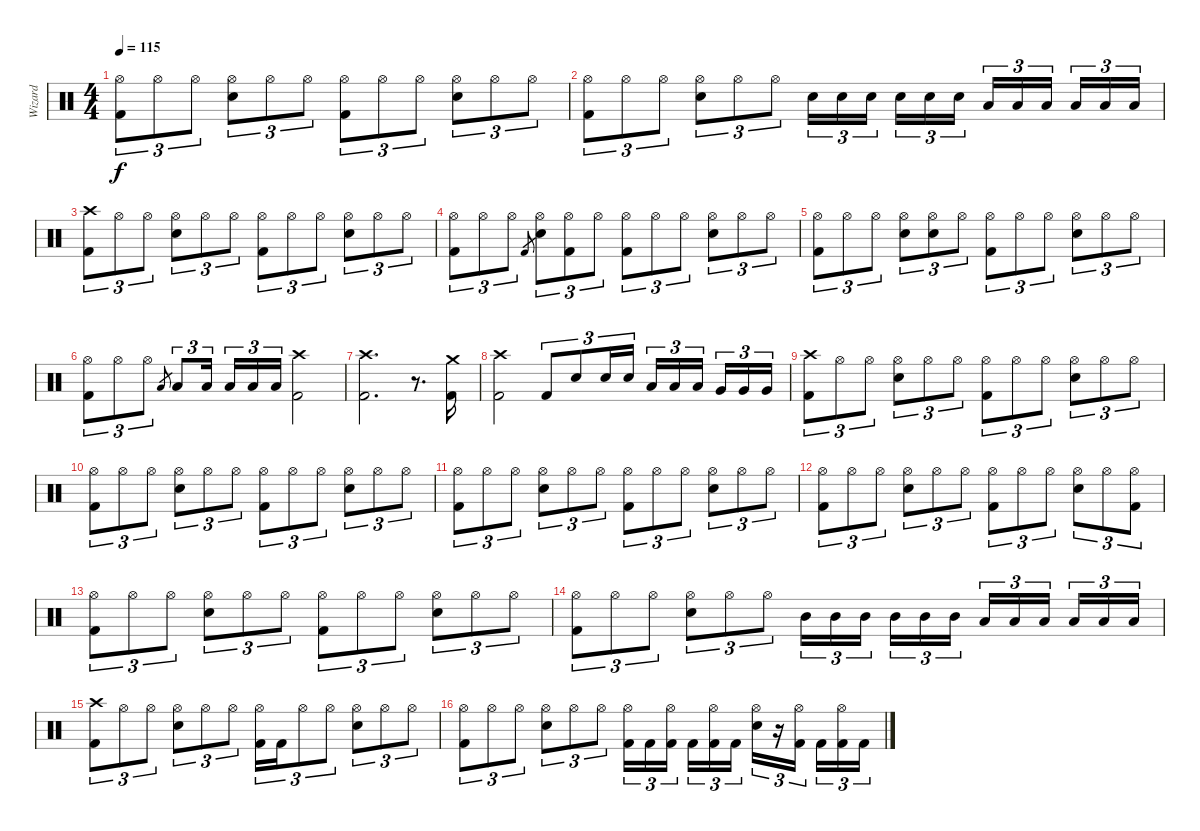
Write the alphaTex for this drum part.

\track ("Wizard" "Wizard") {instrument percussion}
\staff {score}
\articulation defaults
\ts (4 4)
\tempo 115
\clef neutral
\ks c
("Hi-Hat (open)" "Kick (hit) 2").8{tu (3 2) dy f} "Hi-Hat (open)".8{tu (3 2)} "Hi-Hat (open)".8{tu (3 2)} ("Hi-Hat (open)" "Snare (hit) 2").8{tu (3 2)} "Hi-Hat (open)".8{tu (3 2)} "Hi-Hat (open)".8{tu (3 2)} ("Hi-Hat (open)" "Kick (hit) 2").8{tu (3 2)} "Hi-Hat (open)".8{tu (3 2)} "Hi-Hat (open)".8{tu (3 2)} ("Hi-Hat (open)" "Snare (hit) 2").8{tu (3 2)} "Hi-Hat (open)".8{tu (3 2)} "Hi-Hat (open)".8{tu (3 2)} |
("Hi-Hat (open)" "Kick (hit) 2").8{tu (3 2)} "Hi-Hat (open)".8{tu (3 2)} "Hi-Hat (open)".8{tu (3 2)} ("Hi-Hat (open)" "Snare (hit) 2").8{tu (3 2)} "Hi-Hat (open)".8{tu (3 2)} "Hi-Hat (open)".8{tu (3 2)} "Snare (hit) 2".16{tu (3 2)} "Snare (hit) 2".16{tu (3 2)} "Snare (hit) 2".16{tu (3 2) beam splitsecondary} "Snare (hit) 2".16{tu (3 2)} "Snare (hit) 2".16{tu (3 2)} "Snare (hit) 2".16{tu (3 2)} "Low Tom (hit)".16{tu (3 2)} "Low Tom (hit)".16{tu (3 2)} "Low Tom (hit)".16{tu (3 2) beam splitsecondary} "Low Tom (hit)".16{tu (3 2)} "Low Tom (hit)".16{tu (3 2)} "Low Tom (hit)".16{tu (3 2)} |
("Crash high (hit)" "Kick (hit) 2").8{tu (3 2)} "Hi-Hat (open)".8{tu (3 2)} "Hi-Hat (open)".8{tu (3 2)} ("Hi-Hat (open)" "Snare (hit) 2").8{tu (3 2)} "Hi-Hat (open)".8{tu (3 2)} "Hi-Hat (open)".8{tu (3 2)} ("Hi-Hat (open)" "Kick (hit) 2").8{tu (3 2)} "Hi-Hat (open)".8{tu (3 2)} "Hi-Hat (open)".8{tu (3 2)} ("Hi-Hat (open)" "Snare (hit) 2").8{tu (3 2)} "Hi-Hat (open)".8{tu (3 2)} "Hi-Hat (open)".8{tu (3 2)} |
("Hi-Hat (open)" "Kick (hit) 2").8{tu (3 2)} "Hi-Hat (open)".8{tu (3 2)} "Hi-Hat (open)".8{tu (3 2)} "Kick (hit) 2".8{gr} ("Hi-Hat (open)" "Snare (hit) 2").8{tu (3 2)} ("Hi-Hat (open)" "Kick (hit) 2").8{tu (3 2)} "Hi-Hat (open)".8{tu (3 2)} ("Hi-Hat (open)" "Kick (hit) 2").8{tu (3 2)} "Hi-Hat (open)".8{tu (3 2)} "Hi-Hat (open)".8{tu (3 2)} ("Hi-Hat (open)" "Snare (hit) 2").8{tu (3 2)} "Hi-Hat (open)".8{tu (3 2)} "Hi-Hat (open)".8{tu (3 2)} |
("Hi-Hat (open)" "Kick (hit) 2").8{tu (3 2)} "Hi-Hat (open)".8{tu (3 2)} "Hi-Hat (open)".8{tu (3 2)} ("Hi-Hat (open)" "Snare (hit) 2").8{tu (3 2)} ("Hi-Hat (open)" "Snare (hit) 2").8{tu (3 2)} "Hi-Hat (open)".8{tu (3 2)} ("Hi-Hat (open)" "Kick (hit) 2").8{tu (3 2)} "Hi-Hat (open)".8{tu (3 2)} "Hi-Hat (open)".8{tu (3 2)} ("Hi-Hat (open)" "Snare (hit) 2").8{tu (3 2)} "Hi-Hat (open)".8{tu (3 2)} "Hi-Hat (open)".8{tu (3 2)} |
("Hi-Hat (open)" "Kick (hit) 2").8{tu (3 2)} "Hi-Hat (open)".8{tu (3 2)} "Hi-Hat (open)".8{tu (3 2)} "Low Tom (hit)".8{gr} "Low Tom (hit)".8{tu (3 2)} "Low Tom (hit)".16{tu (3 2) beam splitsecondary} "Low Tom (hit)".16{tu (3 2)} "Low Tom (hit)".16{tu (3 2)} "Low Tom (hit)".16{tu (3 2)} ("Crash high (hit)" "Kick (hit) 2").2 |
("Crash high (hit)" "Kick (hit) 2").2{d} r.8{d} ("Crash medium (hit)" "Kick (hit) 2").16 |
("Crash high (hit)" "Kick (hit) 2").2 "Kick (hit) 2".8{tu (3 2)} "Snare (hit) 2".8{tu (3 2)} "Snare (hit) 2".16{tu (3 2)} "Snare (hit) 2".16{tu (3 2)} "Low Tom (hit)".16{tu (3 2)} "Low Tom (hit)".16{tu (3 2)} "Low Tom (hit)".16{tu (3 2) beam splitsecondary} "Very Low Tom (hit)".16{tu (3 2)} "Very Low Tom (hit)".16{tu (3 2)} "Very Low Tom (hit)".16{tu (3 2)} |
("Crash high (hit)" "Kick (hit) 2").8{tu (3 2)} "Hi-Hat (open)".8{tu (3 2)} "Hi-Hat (open)".8{tu (3 2)} ("Hi-Hat (open)" "Snare (hit) 2").8{tu (3 2)} "Hi-Hat (open)".8{tu (3 2)} "Hi-Hat (open)".8{tu (3 2)} ("Hi-Hat (open)" "Kick (hit) 2").8{tu (3 2)} "Hi-Hat (open)".8{tu (3 2)} "Hi-Hat (open)".8{tu (3 2)} ("Hi-Hat (open)" "Snare (hit) 2").8{tu (3 2)} "Hi-Hat (open)".8{tu (3 2)} "Hi-Hat (open)".8{tu (3 2)} |
("Hi-Hat (open)" "Kick (hit) 2").8{tu (3 2)} "Hi-Hat (open)".8{tu (3 2)} "Hi-Hat (open)".8{tu (3 2)} ("Hi-Hat (open)" "Snare (hit) 2").8{tu (3 2)} "Hi-Hat (open)".8{tu (3 2)} "Hi-Hat (open)".8{tu (3 2)} ("Hi-Hat (open)" "Kick (hit) 2").8{tu (3 2)} "Hi-Hat (open)".8{tu (3 2)} "Hi-Hat (open)".8{tu (3 2)} ("Hi-Hat (open)" "Snare (hit) 2").8{tu (3 2)} "Hi-Hat (open)".8{tu (3 2)} "Hi-Hat (open)".8{tu (3 2)} |
("Hi-Hat (open)" "Kick (hit) 2").8{tu (3 2)} "Hi-Hat (open)".8{tu (3 2)} "Hi-Hat (open)".8{tu (3 2)} ("Hi-Hat (open)" "Snare (hit) 2").8{tu (3 2)} "Hi-Hat (open)".8{tu (3 2)} "Hi-Hat (open)".8{tu (3 2)} ("Hi-Hat (open)" "Kick (hit) 2").8{tu (3 2)} "Hi-Hat (open)".8{tu (3 2)} "Hi-Hat (open)".8{tu (3 2)} ("Hi-Hat (open)" "Snare (hit) 2").8{tu (3 2)} "Hi-Hat (open)".8{tu (3 2)} "Hi-Hat (open)".8{tu (3 2)} |
("Hi-Hat (open)" "Kick (hit) 2").8{tu (3 2)} "Hi-Hat (open)".8{tu (3 2)} "Hi-Hat (open)".8{tu (3 2)} ("Hi-Hat (open)" "Snare (hit) 2").8{tu (3 2)} "Hi-Hat (open)".8{tu (3 2)} "Hi-Hat (open)".8{tu (3 2)} ("Hi-Hat (open)" "Kick (hit) 2").8{tu (3 2)} "Hi-Hat (open)".8{tu (3 2)} "Hi-Hat (open)".8{tu (3 2)} ("Hi-Hat (open)" "Snare (hit) 2").8{tu (3 2)} "Hi-Hat (open)".8{tu (3 2)} ("Hi-Hat (open)" "Kick (hit) 2").8{tu (3 2)} |
("Hi-Hat (open)" "Kick (hit) 2").8{tu (3 2)} "Hi-Hat (open)".8{tu (3 2)} "Hi-Hat (open)".8{tu (3 2)} ("Hi-Hat (open)" "Snare (hit) 2").8{tu (3 2)} "Hi-Hat (open)".8{tu (3 2)} "Hi-Hat (open)".8{tu (3 2)} ("Hi-Hat (open)" "Kick (hit) 2").8{tu (3 2)} "Hi-Hat (open)".8{tu (3 2)} "Hi-Hat (open)".8{tu (3 2)} ("Hi-Hat (open)" "Snare (hit) 2").8{tu (3 2)} "Hi-Hat (open)".8{tu (3 2)} "Hi-Hat (open)".8{tu (3 2)} |
("Hi-Hat (open)" "Kick (hit) 2").8{tu (3 2)} "Hi-Hat (open)".8{tu (3 2)} "Hi-Hat (open)".8{tu (3 2)} ("Hi-Hat (open)" "Snare (hit) 2").8{tu (3 2)} "Hi-Hat (open)".8{tu (3 2)} "Hi-Hat (open)".8{tu (3 2)} "Mid Tom (hit)".16{tu (3 2)} "Mid Tom (hit)".16{tu (3 2)} "Mid Tom (hit)".16{tu (3 2) beam splitsecondary} "Mid Tom (hit)".16{tu (3 2)} "Mid Tom (hit)".16{tu (3 2)} "Mid Tom (hit)".16{tu (3 2)} "Low Tom (hit)".16{tu (3 2)} "Low Tom (hit)".16{tu (3 2)} "Low Tom (hit)".16{tu (3 2) beam splitsecondary} "Low Tom (hit)".16{tu (3 2)} "Low Tom (hit)".16{tu (3 2)} "Low Tom (hit)".16{tu (3 2)} |
("Crash high (hit)" "Kick (hit) 2").8{tu (3 2)} "Hi-Hat (open)".8{tu (3 2)} "Hi-Hat (open)".8{tu (3 2)} ("Hi-Hat (open)" "Snare (hit) 2").8{tu (3 2)} "Hi-Hat (open)".8{tu (3 2)} "Hi-Hat (open)".8{tu (3 2)} ("Hi-Hat (open)" "Kick (hit) 2").16{tu (3 2)} "Kick (hit) 2".16{tu (3 2)} "Hi-Hat (open)".8{tu (3 2)} "Hi-Hat (open)".8{tu (3 2)} ("Hi-Hat (open)" "Snare (hit) 2").8{tu (3 2)} "Hi-Hat (open)".8{tu (3 2)} "Hi-Hat (open)".8{tu (3 2)} |
("Hi-Hat (open)" "Kick (hit) 2").8{tu (3 2)} "Hi-Hat (open)".8{tu (3 2)} "Hi-Hat (open)".8{tu (3 2)} ("Hi-Hat (open)" "Snare (hit) 2").8{tu (3 2)} "Hi-Hat (open)".8{tu (3 2)} "Hi-Hat (open)".8{tu (3 2)} ("Hi-Hat (open)" "Kick (hit) 2").16{tu (3 2)} "Kick (hit) 2".16{tu (3 2)} ("Hi-Hat (open)" "Kick (hit) 2").16{tu (3 2) beam splitsecondary} "Kick (hit) 2".16{tu (3 2)} ("Hi-Hat (open)" "Kick (hit) 2").16{tu (3 2)} "Kick (hit) 2".16{tu (3 2)} ("Hi-Hat (open)" "Snare (hit) 2").16{tu (3 2)} r.16{tu (3 2)} ("Hi-Hat (open)" "Kick (hit) 2").16{tu (3 2) beam splitsecondary} "Kick (hit) 2".16{tu (3 2)} ("Hi-Hat (open)" "Kick (hit) 2").16{tu (3 2)} "Kick (hit) 2".16{tu (3 2)}
